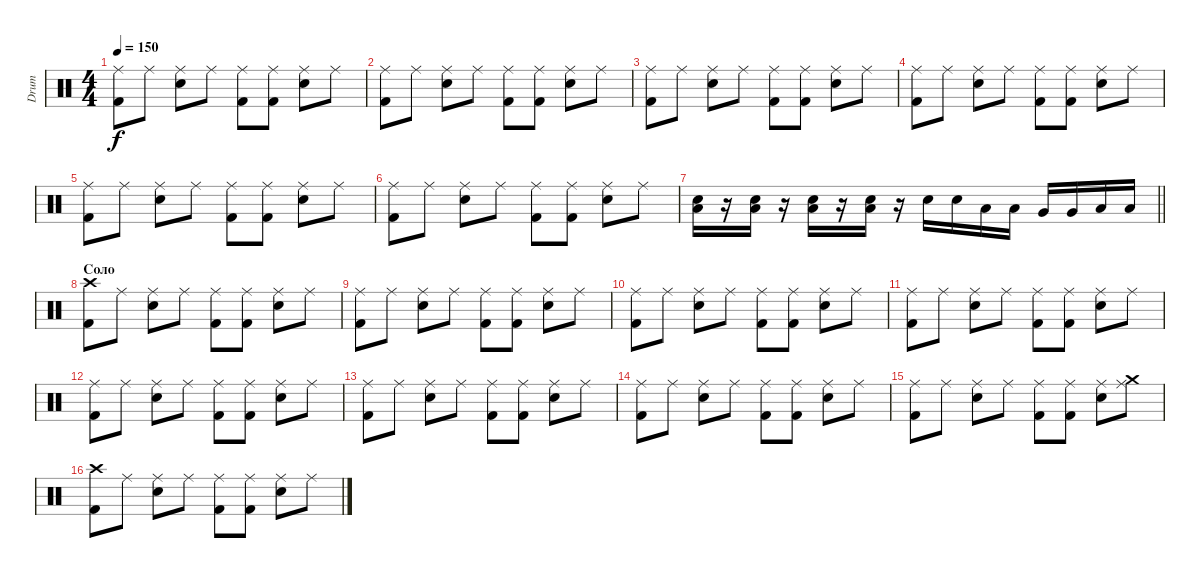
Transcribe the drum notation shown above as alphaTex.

\track ("Drum" "Drum") {instrument percussion}
\staff {score}
\articulation defaults
\ts (4 4)
\tempo 150
\clef neutral
\ks c
("Ride (middle)" "Kick (hit) 2").8{dy f} "Ride (middle)".8 ("Ride (middle)" "Electric Snare (hit)").8 "Ride (middle)".8 ("Ride (middle)" "Kick (hit) 2").8 ("Ride (middle)" "Kick (hit) 2").8 ("Ride (middle)" "Electric Snare (hit)").8 "Ride (middle)".8 |
("Ride (middle)" "Kick (hit) 2").8 "Ride (middle)".8 ("Ride (middle)" "Electric Snare (hit)").8 "Ride (middle)".8 ("Ride (middle)" "Kick (hit) 2").8 ("Ride (middle)" "Kick (hit) 2").8 ("Ride (middle)" "Electric Snare (hit)").8 "Ride (middle)".8 |
("Ride (middle)" "Kick (hit) 2").8 "Ride (middle)".8 ("Ride (middle)" "Electric Snare (hit)").8 "Ride (middle)".8 ("Ride (middle)" "Kick (hit) 2").8 ("Ride (middle)" "Kick (hit) 2").8 ("Ride (middle)" "Electric Snare (hit)").8 "Ride (middle)".8 |
("Ride (middle)" "Kick (hit) 2").8 "Ride (middle)".8 ("Ride (middle)" "Electric Snare (hit)").8 "Ride (middle)".8 ("Ride (middle)" "Kick (hit) 2").8 ("Ride (middle)" "Kick (hit) 2").8 ("Ride (middle)" "Electric Snare (hit)").8 "Ride (middle)".8 |
("Ride (middle)" "Kick (hit) 2").8 "Ride (middle)".8 ("Ride (middle)" "Electric Snare (hit)").8 "Ride (middle)".8 ("Ride (middle)" "Kick (hit) 2").8 ("Ride (middle)" "Kick (hit) 2").8 ("Ride (middle)" "Electric Snare (hit)").8 "Ride (middle)".8 |
("Ride (middle)" "Kick (hit) 2").8 "Ride (middle)".8 ("Ride (middle)" "Electric Snare (hit)").8 "Ride (middle)".8 ("Ride (middle)" "Kick (hit) 2").8 ("Ride (middle)" "Kick (hit) 2").8 ("Ride (middle)" "Electric Snare (hit)").8 "Ride (middle)".8 |
\barLineRight lightlight
("Electric Snare (hit)" "Low Floor Tom (hit)").16 r.16 ("Electric Snare (hit)" "Low Floor Tom (hit)").16 r.16 ("Electric Snare (hit)" "Low Floor Tom (hit)").16 r.16 ("Electric Snare (hit)" "Low Floor Tom (hit)").16 r.16 "Electric Snare (hit)".16 "Electric Snare (hit)".16 "Low Tom (hit)".16 "Low Tom (hit)".16 "Very Low Tom (hit)".16 "Very Low Tom (hit)".16 "Low Floor Tom (hit)".16 "Low Floor Tom (hit)".16 |
\section ("" "Соло")
("Crash high (hit)" "Kick (hit) 2").8 "Ride (middle)".8 ("Ride (middle)" "Electric Snare (hit)").8 "Ride (middle)".8 ("Ride (middle)" "Kick (hit) 2").8 ("Ride (middle)" "Kick (hit) 2").8 ("Ride (middle)" "Electric Snare (hit)").8 "Ride (middle)".8 |
("Ride (middle)" "Kick (hit) 2").8 "Ride (middle)".8 ("Ride (middle)" "Electric Snare (hit)").8 "Ride (middle)".8 ("Ride (middle)" "Kick (hit) 2").8 ("Ride (middle)" "Kick (hit) 2").8 ("Ride (middle)" "Electric Snare (hit)").8 "Ride (middle)".8 |
("Ride (middle)" "Kick (hit) 2").8 "Ride (middle)".8 ("Ride (middle)" "Electric Snare (hit)").8 "Ride (middle)".8 ("Ride (middle)" "Kick (hit) 2").8 ("Ride (middle)" "Kick (hit) 2").8 ("Ride (middle)" "Electric Snare (hit)").8 "Ride (middle)".8 |
("Ride (middle)" "Kick (hit) 2").8 "Ride (middle)".8 ("Ride (middle)" "Electric Snare (hit)").8 "Ride (middle)".8 ("Ride (middle)" "Kick (hit) 2").8 ("Ride (middle)" "Kick (hit) 2").8 ("Ride (middle)" "Electric Snare (hit)").8 "Ride (middle)".8 |
("Ride (middle)" "Kick (hit) 2").8 "Ride (middle)".8 ("Ride (middle)" "Electric Snare (hit)").8 "Ride (middle)".8 ("Ride (middle)" "Kick (hit) 2").8 ("Ride (middle)" "Kick (hit) 2").8 ("Ride (middle)" "Electric Snare (hit)").8 "Ride (middle)".8 |
("Ride (middle)" "Kick (hit) 2").8 "Ride (middle)".8 ("Ride (middle)" "Electric Snare (hit)").8 "Ride (middle)".8 ("Ride (middle)" "Kick (hit) 2").8 ("Ride (middle)" "Kick (hit) 2").8 ("Ride (middle)" "Electric Snare (hit)").8 "Ride (middle)".8 |
("Ride (middle)" "Kick (hit) 2").8 "Ride (middle)".8 ("Ride (middle)" "Electric Snare (hit)").8 "Ride (middle)".8 ("Ride (middle)" "Kick (hit) 2").8 ("Ride (middle)" "Kick (hit) 2").8 ("Ride (middle)" "Electric Snare (hit)").8 "Ride (middle)".8 |
("Ride (middle)" "Kick (hit) 2").8 "Ride (middle)".8 ("Ride (middle)" "Electric Snare (hit)").8 "Ride (middle)".8 ("Ride (middle)" "Kick (hit) 2").8 ("Ride (middle)" "Kick (hit) 2").8 ("Ride (middle)" "Electric Snare (hit)").8 ("Ride (middle)" "Crash medium (hit)").8 |
("Crash high (hit)" "Kick (hit) 2").8 "Ride (middle)".8 ("Ride (middle)" "Electric Snare (hit)").8 "Ride (middle)".8 ("Ride (middle)" "Kick (hit) 2").8 ("Ride (middle)" "Kick (hit) 2").8 ("Ride (middle)" "Electric Snare (hit)").8 "Ride (middle)".8
